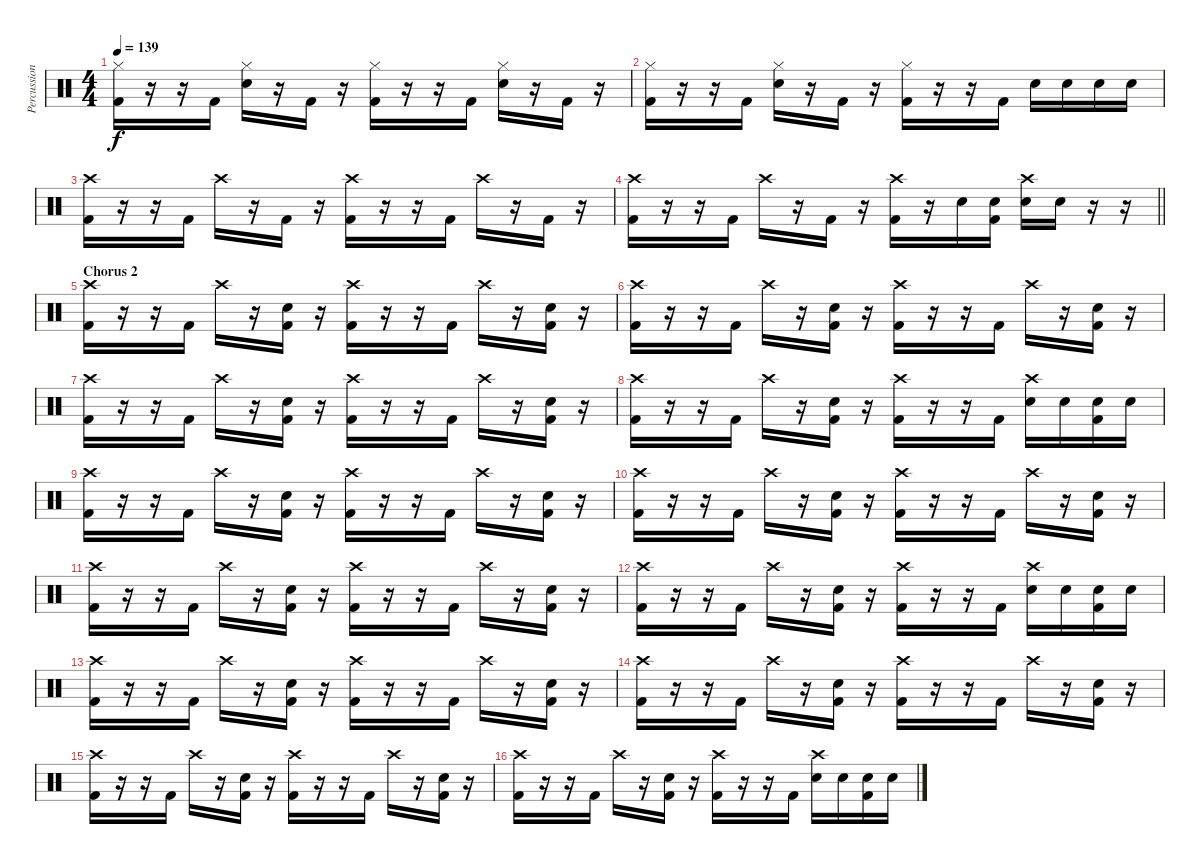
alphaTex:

\track ("Percussion" "Percussion") {instrument percussion}
\staff {score}
\articulation defaults
\ts (4 4)
\tempo 139
\clef neutral
\ks c
("Hi-Hat (closed)" "Kick (hit) 2").16{dy f} r.16 r.16 "Kick (hit) 2".16 ("Hi-Hat (closed)" "Snare (hit) 2").16 r.16 "Kick (hit) 2".16 r.16 ("Hi-Hat (closed)" "Kick (hit) 2").16 r.16 r.16 "Kick (hit) 2".16 ("Hi-Hat (closed)" "Snare (hit) 2").16 r.16 "Kick (hit) 2".16 r.16 |
("Hi-Hat (closed)" "Kick (hit) 2").16 r.16 r.16 "Kick (hit) 2".16 ("Hi-Hat (closed)" "Snare (hit) 2").16 r.16 "Kick (hit) 2".16 r.16 ("Hi-Hat (closed)" "Kick (hit) 2").16 r.16 r.16 "Kick (hit) 2".16 "Snare (hit) 2".16 "Snare (hit) 2".16 "Snare (hit) 2".16 "Snare (hit) 2".16 |
("Crash high (hit)" "Kick (hit) 2").16 r.16 r.16 "Kick (hit) 2".16 "Crash high (hit)".16 r.16 "Kick (hit) 2".16 r.16 ("Crash high (hit)" "Kick (hit) 2").16 r.16 r.16 "Kick (hit) 2".16 "Crash high (hit)".16 r.16 "Kick (hit) 2".16 r.16 |
\barLineRight lightlight
("Crash high (hit)" "Kick (hit) 2").16 r.16 r.16 "Kick (hit) 2".16 "Crash high (hit)".16 r.16 "Kick (hit) 2".16 r.16 ("Crash high (hit)" "Kick (hit) 2").16 r.16 "Snare (hit) 2".16 ("Snare (hit) 2" "Kick (hit) 2").16 ("Crash high (hit)" "Snare (hit) 2").16 "Snare (hit) 2".16 r.16 r.16 |
\section ("" "Chorus 2")
("Crash high (hit)" "Kick (hit) 2").16 r.16 r.16 "Kick (hit) 2".16 "Crash high (hit)".16 r.16 ("Snare (hit) 2" "Kick (hit) 2").16 r.16 ("Crash high (hit)" "Kick (hit) 2").16 r.16 r.16 "Kick (hit) 2".16 "Crash high (hit)".16 r.16 ("Snare (hit) 2" "Kick (hit) 2").16 r.16 |
("Crash high (hit)" "Kick (hit) 2").16 r.16 r.16 "Kick (hit) 2".16 "Crash high (hit)".16 r.16 ("Snare (hit) 2" "Kick (hit) 2").16 r.16 ("Crash high (hit)" "Kick (hit) 2").16 r.16 r.16 "Kick (hit) 2".16 "Crash high (hit)".16 r.16 ("Snare (hit) 2" "Kick (hit) 2").16 r.16 |
("Crash high (hit)" "Kick (hit) 2").16 r.16 r.16 "Kick (hit) 2".16 "Crash high (hit)".16 r.16 ("Snare (hit) 2" "Kick (hit) 2").16 r.16 ("Crash high (hit)" "Kick (hit) 2").16 r.16 r.16 "Kick (hit) 2".16 "Crash high (hit)".16 r.16 ("Snare (hit) 2" "Kick (hit) 2").16 r.16 |
("Crash high (hit)" "Kick (hit) 2").16 r.16 r.16 "Kick (hit) 2".16 "Crash high (hit)".16 r.16 ("Snare (hit) 2" "Kick (hit) 2").16 r.16 ("Crash high (hit)" "Kick (hit) 2").16 r.16 r.16 "Kick (hit) 2".16 ("Crash high (hit)" "Snare (hit) 2").16 "Snare (hit) 2".16 ("Snare (hit) 2" "Kick (hit) 2").16 "Snare (hit) 2".16 |
("Crash high (hit)" "Kick (hit) 2").16 r.16 r.16 "Kick (hit) 2".16 "Crash high (hit)".16 r.16 ("Snare (hit) 2" "Kick (hit) 2").16 r.16 ("Crash high (hit)" "Kick (hit) 2").16 r.16 r.16 "Kick (hit) 2".16 "Crash high (hit)".16 r.16 ("Snare (hit) 2" "Kick (hit) 2").16 r.16 |
("Crash high (hit)" "Kick (hit) 2").16 r.16 r.16 "Kick (hit) 2".16 "Crash high (hit)".16 r.16 ("Snare (hit) 2" "Kick (hit) 2").16 r.16 ("Crash high (hit)" "Kick (hit) 2").16 r.16 r.16 "Kick (hit) 2".16 "Crash high (hit)".16 r.16 ("Snare (hit) 2" "Kick (hit) 2").16 r.16 |
("Crash high (hit)" "Kick (hit) 2").16 r.16 r.16 "Kick (hit) 2".16 "Crash high (hit)".16 r.16 ("Snare (hit) 2" "Kick (hit) 2").16 r.16 ("Crash high (hit)" "Kick (hit) 2").16 r.16 r.16 "Kick (hit) 2".16 "Crash high (hit)".16 r.16 ("Snare (hit) 2" "Kick (hit) 2").16 r.16 |
("Crash high (hit)" "Kick (hit) 2").16 r.16 r.16 "Kick (hit) 2".16 "Crash high (hit)".16 r.16 ("Snare (hit) 2" "Kick (hit) 2").16 r.16 ("Crash high (hit)" "Kick (hit) 2").16 r.16 r.16 "Kick (hit) 2".16 ("Crash high (hit)" "Snare (hit) 2").16 "Snare (hit) 2".16 ("Snare (hit) 2" "Kick (hit) 2").16 "Snare (hit) 2".16 |
("Crash high (hit)" "Kick (hit) 2").16 r.16 r.16 "Kick (hit) 2".16 "Crash high (hit)".16 r.16 ("Snare (hit) 2" "Kick (hit) 2").16 r.16 ("Crash high (hit)" "Kick (hit) 2").16 r.16 r.16 "Kick (hit) 2".16 "Crash high (hit)".16 r.16 ("Snare (hit) 2" "Kick (hit) 2").16 r.16 |
("Crash high (hit)" "Kick (hit) 2").16 r.16 r.16 "Kick (hit) 2".16 "Crash high (hit)".16 r.16 ("Snare (hit) 2" "Kick (hit) 2").16 r.16 ("Crash high (hit)" "Kick (hit) 2").16 r.16 r.16 "Kick (hit) 2".16 "Crash high (hit)".16 r.16 ("Snare (hit) 2" "Kick (hit) 2").16 r.16 |
("Crash high (hit)" "Kick (hit) 2").16 r.16 r.16 "Kick (hit) 2".16 "Crash high (hit)".16 r.16 ("Snare (hit) 2" "Kick (hit) 2").16 r.16 ("Crash high (hit)" "Kick (hit) 2").16 r.16 r.16 "Kick (hit) 2".16 "Crash high (hit)".16 r.16 ("Snare (hit) 2" "Kick (hit) 2").16 r.16 |
("Crash high (hit)" "Kick (hit) 2").16 r.16 r.16 "Kick (hit) 2".16 "Crash high (hit)".16 r.16 ("Snare (hit) 2" "Kick (hit) 2").16 r.16 ("Crash high (hit)" "Kick (hit) 2").16 r.16 r.16 "Kick (hit) 2".16 ("Crash high (hit)" "Snare (hit) 2").16 "Snare (hit) 2".16 ("Snare (hit) 2" "Kick (hit) 2").16 "Snare (hit) 2".16
